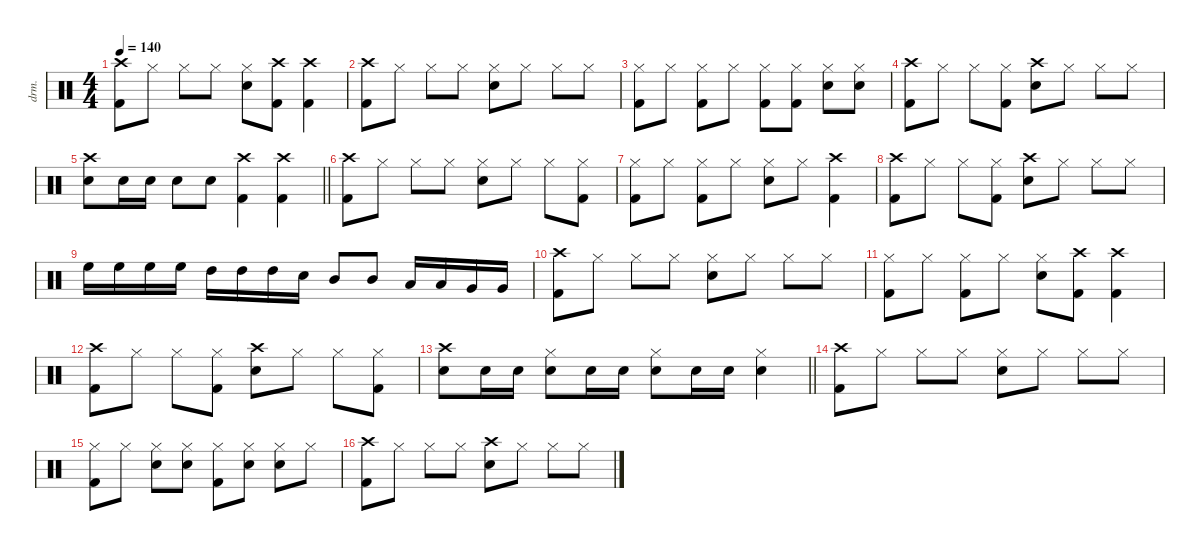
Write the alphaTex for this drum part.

\defaultSystemsLayout 4
\hideDynamics
\bracketExtendMode nobrackets
\otherSystemsTrackNameOrientation horizontal
\track ("Drums" "drm.") {defaultSystemsLayout 4 instrument percussion}
\staff {score}
\articulation defaults
\ts (4 4)
\tempo 140
\clef neutral
\ks aminor
("Crash high (hit)" "Kick (hit) 2").8{dy f beam Down} "Hi-Hat (closed)".8{beam Down} "Hi-Hat (closed)".8{beam Down} "Hi-Hat (closed)".8{beam Down} ("Hi-Hat (closed)" "Snare (hit) 2").8{beam Down} ("Crash high (hit)" "Kick (hit) 2").8{beam Down} ("Crash high (hit)" "Kick (hit) 2").4{beam Down} |
("Crash high (hit)" "Kick (hit) 2").8{beam Down} "Hi-Hat (closed)".8{beam Down} "Hi-Hat (closed)".8{beam Down} "Hi-Hat (closed)".8{beam Down} ("Hi-Hat (closed)" "Snare (hit) 2").8{beam Down} "Hi-Hat (closed)".8{beam Down} "Hi-Hat (closed)".8{beam Down} "Hi-Hat (closed)".8{beam Down} |
("Hi-Hat (closed)" "Kick (hit) 2").8{beam Down} "Hi-Hat (closed)".8{beam Down} ("Hi-Hat (closed)" "Kick (hit) 2").8{beam Down} "Hi-Hat (closed)".8{beam Down} ("Hi-Hat (closed)" "Kick (hit) 2").8{beam Down} ("Hi-Hat (closed)" "Kick (hit) 2").8{beam Down} ("Hi-Hat (closed)" "Snare (hit) 2").8{beam Down} ("Hi-Hat (closed)" "Snare (hit) 2").8{beam Down} |
("Crash high (hit)" "Kick (hit) 2").8{beam Down} "Hi-Hat (closed)".8{beam Down} "Hi-Hat (closed)".8{beam Down} ("Hi-Hat (closed)" "Kick (hit) 2").8{beam Down} ("Crash high (hit)" "Snare (hit) 2").8{beam Down} "Hi-Hat (closed)".8{beam Down} "Hi-Hat (closed)".8{beam Down} "Hi-Hat (closed)".8{beam Down} |
\barLineRight lightlight
("Crash high (hit)" "Snare (hit) 2").8{beam Down} "Snare (hit) 2".16{beam Down} "Snare (hit) 2".16{beam Down} "Snare (hit) 2".8{beam Down} "Snare (hit) 2".8{beam Down} ("Crash high (hit)" "Kick (hit) 2").4{beam Down} ("Crash high (hit)" "Kick (hit) 2").4{beam Down} |
("Crash high (hit)" "Kick (hit) 2").8{beam Down} "Hi-Hat (closed)".8{beam Down} "Hi-Hat (closed)".8{beam Down} "Hi-Hat (closed)".8{beam Down} ("Hi-Hat (closed)" "Snare (hit) 2").8{beam Down} "Hi-Hat (closed)".8{beam Down} "Hi-Hat (closed)".8{beam Down} ("Hi-Hat (closed)" "Kick (hit) 2").8{beam Down} |
("Hi-Hat (closed)" "Kick (hit) 2").8{beam Down} "Hi-Hat (closed)".8{beam Down} ("Hi-Hat (closed)" "Kick (hit) 2").8{beam Down} "Hi-Hat (closed)".8{beam Down} ("Hi-Hat (closed)" "Snare (hit) 2").8{beam Down} "Hi-Hat (closed)".8{beam Down} ("Crash high (hit)" "Kick (hit) 2").4{beam Down} |
("Crash high (hit)" "Kick (hit) 2").8{beam Down} "Hi-Hat (closed)".8{beam Down} "Hi-Hat (closed)".8{beam Down} ("Hi-Hat (closed)" "Kick (hit) 2").8{beam Down} ("Crash high (hit)" "Snare (hit) 2").8{beam Down} "Hi-Hat (closed)".8{beam Down} "Hi-Hat (closed)".8{beam Down} "Hi-Hat (closed)".8{beam Down} |
"High Floor Tom (hit)".16{beam Down} "High Floor Tom (hit)".16{beam Down} "High Floor Tom (hit)".16{beam Down} "High Floor Tom (hit)".16{beam Down} "High Tom (hit)".16{beam Down} "High Tom (hit)".16{beam Down} "High Tom (hit)".16{beam Down} "Snare (hit) 2".16{beam Down} "Mid Tom (hit)".8{beam Up} "Mid Tom (hit)".8{beam Up} "Low Tom (hit)".16{beam Up} "Low Tom (hit)".16{beam Up} "Very Low Tom (hit)".16{beam Up} "Very Low Tom (hit)".16{beam Up} |
("Crash high (hit)" "Kick (hit) 2").8{beam Down} "Hi-Hat (closed)".8{beam Down} "Hi-Hat (closed)".8{beam Down} "Hi-Hat (closed)".8{beam Down} ("Hi-Hat (closed)" "Snare (hit) 2").8{beam Down} "Hi-Hat (closed)".8{beam Down} "Hi-Hat (closed)".8{beam Down} "Hi-Hat (closed)".8{beam Down} |
("Hi-Hat (closed)" "Kick (hit) 2").8{beam Down} "Hi-Hat (closed)".8{beam Down} ("Hi-Hat (closed)" "Kick (hit) 2").8{beam Down} "Hi-Hat (closed)".8{beam Down} ("Hi-Hat (closed)" "Snare (hit) 2").8{beam Down} ("Crash high (hit)" "Kick (hit) 2").8{beam Down} ("Crash high (hit)" "Kick (hit) 2").4{beam Down} |
("Crash high (hit)" "Kick (hit) 2").8{beam Down} "Hi-Hat (closed)".8{beam Down} "Hi-Hat (closed)".8{beam Down} ("Hi-Hat (closed)" "Kick (hit) 2").8{beam Down} ("Crash high (hit)" "Snare (hit) 2").8{beam Down} "Hi-Hat (closed)".8{beam Down} "Hi-Hat (closed)".8{beam Down} ("Hi-Hat (closed)" "Kick (hit) 2").8{beam Down} |
\barLineRight lightlight
("Crash high (hit)" "Snare (hit) 2").8{beam Down} "Snare (hit) 2".16{beam Down} "Snare (hit) 2".16{beam Down} ("Hi-Hat (closed)" "Snare (hit) 2").8{beam Down} "Snare (hit) 2".16{beam Down} "Snare (hit) 2".16{beam Down} ("Hi-Hat (closed)" "Snare (hit) 2").8{beam Down} "Snare (hit) 2".16{beam Down} "Snare (hit) 2".16{beam Down} ("Hi-Hat (closed)" "Snare (hit) 2").4{beam Down} |
("Crash high (hit)" "Kick (hit) 2").8{beam Down} "Hi-Hat (closed)".8{beam Down} "Hi-Hat (closed)".8{beam Down} "Hi-Hat (closed)".8{beam Down} ("Hi-Hat (closed)" "Snare (hit) 2").8{beam Down} "Hi-Hat (closed)".8{beam Down} "Hi-Hat (closed)".8{beam Down} "Hi-Hat (closed)".8{beam Down} |
("Hi-Hat (closed)" "Kick (hit) 2").8{beam Down} "Hi-Hat (closed)".8{beam Down} ("Hi-Hat (closed)" "Snare (hit) 2").8{beam Down} ("Hi-Hat (closed)" "Snare (hit) 2").8{beam Down} ("Hi-Hat (closed)" "Kick (hit) 2").8{beam Down} ("Hi-Hat (closed)" "Snare (hit) 2").8{beam Down} ("Hi-Hat (closed)" "Snare (hit) 2").8{beam Down} "Hi-Hat (closed)".8{beam Down} |
("Crash high (hit)" "Kick (hit) 2").8{beam Down} "Hi-Hat (closed)".8{beam Down} "Hi-Hat (closed)".8{beam Down} "Hi-Hat (closed)".8{beam Down} ("Crash high (hit)" "Snare (hit) 2").8{beam Down} "Hi-Hat (closed)".8{beam Down} "Hi-Hat (closed)".8{beam Down} "Hi-Hat (closed)".8{beam Down}
